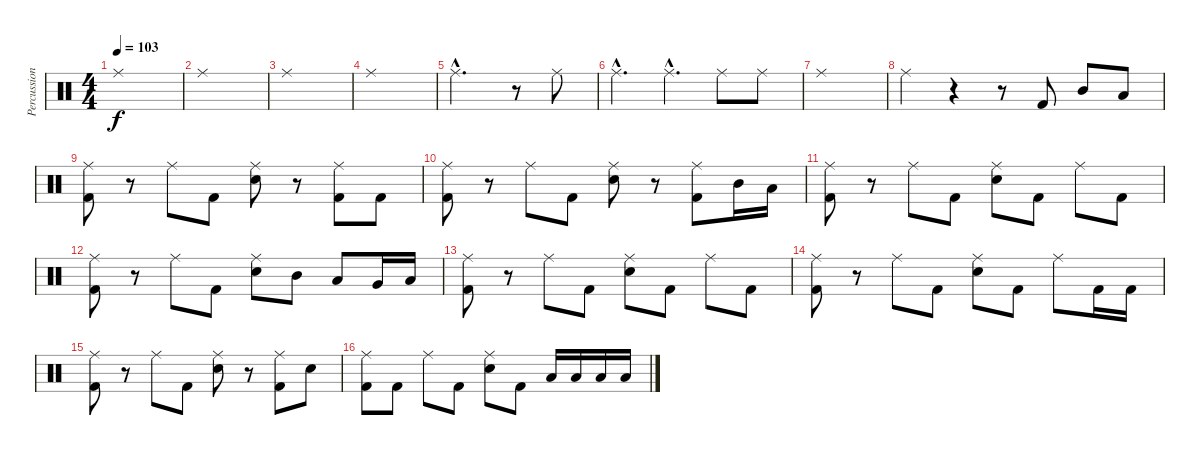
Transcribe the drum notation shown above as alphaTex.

\track ("Percussion" "Percussion") {instrument percussion}
\staff {score}
\articulation defaults
\ts (4 4)
\tempo 103
\clef neutral
\ks c "Ride (middle)".1{dy f}
|
"Ride (middle)".1 |
"Ride (middle)".1 |
"Ride (middle)".1 |
"Ride (middle)"{hac}.2{d} r.8 "Ride (middle)".8 |
"Ride (middle)"{hac}.4{d} "Ride (middle)"{hac}.4{d} "Ride (middle)".8 "Ride (middle)".8 |
"Ride (middle)".1 |
"Ride (middle)".4 r.4 r.8 "Kick (hit) 2".8 "Mid Tom (hit)".8 "Low Tom (hit)".8 |
("Ride (middle)" "Kick (hit) 2").8 r.8 "Ride (middle)".8 "Kick (hit) 2".8 ("Ride (middle)" "Electric Snare (hit)").8 r.8 ("Ride (middle)" "Kick (hit) 2").8 "Kick (hit) 2".8 |
("Ride (middle)" "Kick (hit) 2").8 r.8 "Ride (middle)".8 "Kick (hit) 2".8 ("Ride (middle)" "Electric Snare (hit)").8 r.8 ("Ride (middle)" "Kick (hit) 2").8 "Mid Tom (hit)".16 "Low Tom (hit)".16 |
("Ride (middle)" "Kick (hit) 2").8 r.8 "Ride (middle)".8 "Kick (hit) 2".8 ("Ride (middle)" "Electric Snare (hit)").8 "Kick (hit) 2".8 "Ride (middle)".8 "Kick (hit) 2".8 |
("Ride (middle)" "Kick (hit) 2").8 r.8 "Ride (middle)".8 "Kick (hit) 2".8 ("Ride (middle)" "Electric Snare (hit)").8 "Mid Tom (hit)".8 "Low Tom (hit)".8 "Very Low Tom (hit)".16 "Low Floor Tom (hit)".16 |
("Ride (middle)" "Kick (hit) 2").8 r.8 "Ride (middle)".8 "Kick (hit) 2".8 ("Ride (middle)" "Electric Snare (hit)").8 "Kick (hit) 2".8 "Ride (middle)".8 "Kick (hit) 2".8 |
("Ride (middle)" "Kick (hit) 2").8 r.8 "Ride (middle)".8 "Kick (hit) 2".8 ("Ride (middle)" "Electric Snare (hit)").8 "Kick (hit) 2".8 "Ride (middle)".8 "Kick (hit) 2".16 "Kick (hit) 2".16 |
("Ride (middle)" "Kick (hit) 2").8 r.8 "Ride (middle)".8 "Kick (hit) 2".8 ("Ride (middle)" "Electric Snare (hit)").8 r.8 ("Ride (middle)" "Kick (hit) 2").8 "Electric Snare (hit)".8 |
("Ride (middle)" "Kick (hit) 2").8 "Kick (hit) 2".8 "Ride (middle)".8 "Kick (hit) 2".8 ("Ride (middle)" "Electric Snare (hit)").8 "Kick (hit) 2".8 "Low Floor Tom (hit)".16 "Low Floor Tom (hit)".16 "Low Floor Tom (hit)".16 "Low Floor Tom (hit)".16
